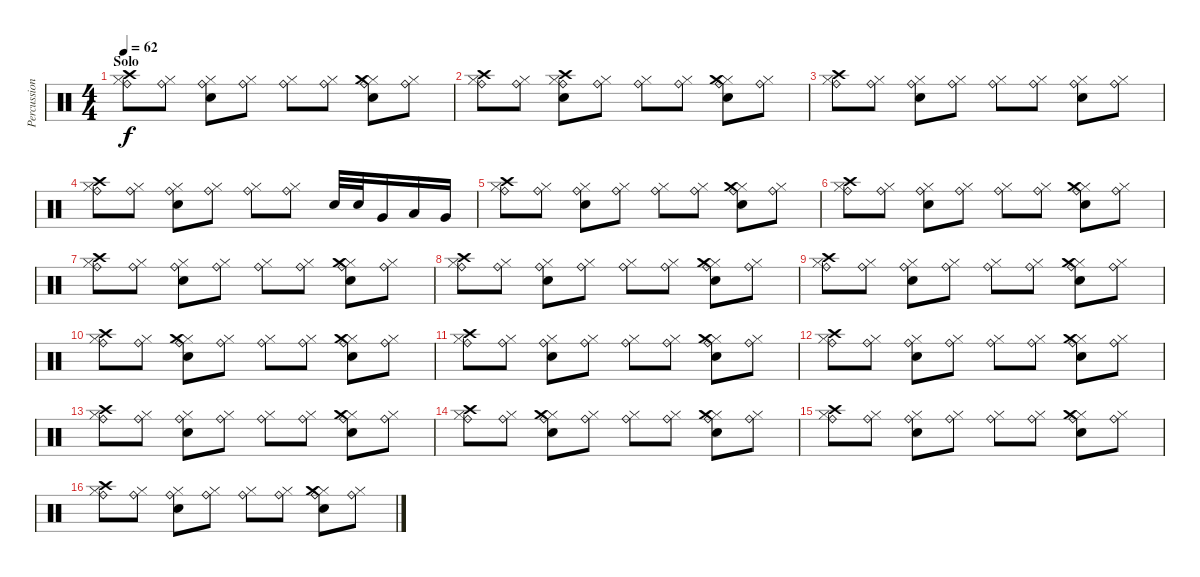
\track ("Percussion" "Percussion") {instrument percussion}
\staff {score}
\articulation defaults
\ts (4 4)
\section ("" "Solo")
\tempo 62
\clef neutral
\ks c
("Hi-Hat (closed)" "Crash high (hit)" "Ride (bell)").8{dy f} ("Hi-Hat (closed)" "Ride (bell)").8 ("Hi-Hat (closed)" "Electric Snare (hit)" "Ride (bell)").8 ("Hi-Hat (closed)" "Ride (bell)").8 ("Hi-Hat (closed)" "Ride (bell)").8 ("Hi-Hat (closed)" "Ride (bell)").8 ("Hi-Hat (closed)" "Crash medium (hit)" "Electric Snare (hit)" "Ride (bell)").8 ("Hi-Hat (closed)" "Ride (bell)").8 |
("Hi-Hat (closed)" "Crash high (hit)" "Ride (bell)").8 ("Hi-Hat (closed)" "Ride (bell)").8 ("Hi-Hat (closed)" "Crash high (hit)" "Electric Snare (hit)" "Ride (bell)").8 ("Hi-Hat (closed)" "Ride (bell)").8 ("Hi-Hat (closed)" "Ride (bell)").8 ("Hi-Hat (closed)" "Ride (bell)").8 ("Hi-Hat (closed)" "Crash medium (hit)" "Electric Snare (hit)" "Ride (bell)").8 ("Hi-Hat (closed)" "Ride (bell)").8 |
("Hi-Hat (closed)" "Crash high (hit)" "Ride (bell)").8 ("Hi-Hat (closed)" "Ride (bell)").8 ("Hi-Hat (closed)" "Electric Snare (hit)" "Ride (bell)").8 ("Hi-Hat (closed)" "Ride (bell)").8 ("Hi-Hat (closed)" "Ride (bell)").8 ("Hi-Hat (closed)" "Ride (bell)").8 ("Hi-Hat (closed)" "Electric Snare (hit)" "Ride (bell)").8 ("Hi-Hat (closed)" "Ride (bell)").8 |
("Hi-Hat (closed)" "Crash high (hit)" "Ride (bell)").8 ("Hi-Hat (closed)" "Ride (bell)").8 ("Hi-Hat (closed)" "Electric Snare (hit)" "Ride (bell)").8 ("Hi-Hat (closed)" "Ride (bell)").8 ("Hi-Hat (closed)" "Ride (bell)").8 ("Hi-Hat (closed)" "Ride (bell)").8 "Electric Snare (hit)".32 "Electric Snare (hit)".32 "Very Low Tom (hit)".16 "Low Tom (hit)".16 "Very Low Tom (hit)".16 |
("Hi-Hat (closed)" "Crash high (hit)" "Ride (bell)").8 ("Hi-Hat (closed)" "Ride (bell)").8 ("Hi-Hat (closed)" "Electric Snare (hit)" "Ride (bell)").8 ("Hi-Hat (closed)" "Ride (bell)").8 ("Hi-Hat (closed)" "Ride (bell)").8 ("Hi-Hat (closed)" "Ride (bell)").8 ("Hi-Hat (closed)" "Crash medium (hit)" "Electric Snare (hit)" "Ride (bell)").8 ("Hi-Hat (closed)" "Ride (bell)").8 |
("Hi-Hat (closed)" "Crash high (hit)" "Ride (bell)").8 ("Hi-Hat (closed)" "Ride (bell)").8 ("Hi-Hat (closed)" "Electric Snare (hit)" "Ride (bell)").8 ("Hi-Hat (closed)" "Ride (bell)").8 ("Hi-Hat (closed)" "Ride (bell)").8 ("Hi-Hat (closed)" "Ride (bell)").8 ("Hi-Hat (closed)" "Crash medium (hit)" "Electric Snare (hit)" "Ride (bell)").8 ("Hi-Hat (closed)" "Ride (bell)").8 |
("Hi-Hat (closed)" "Crash high (hit)" "Ride (bell)").8 ("Hi-Hat (closed)" "Ride (bell)").8 ("Hi-Hat (closed)" "Electric Snare (hit)" "Ride (bell)").8 ("Hi-Hat (closed)" "Ride (bell)").8 ("Hi-Hat (closed)" "Ride (bell)").8 ("Hi-Hat (closed)" "Ride (bell)").8 ("Hi-Hat (closed)" "Crash medium (hit)" "Electric Snare (hit)" "Ride (bell)").8 ("Hi-Hat (closed)" "Ride (bell)").8 |
("Hi-Hat (closed)" "Crash high (hit)" "Ride (bell)").8 ("Hi-Hat (closed)" "Ride (bell)").8 ("Hi-Hat (closed)" "Electric Snare (hit)" "Ride (bell)").8 ("Hi-Hat (closed)" "Ride (bell)").8 ("Hi-Hat (closed)" "Ride (bell)").8 ("Hi-Hat (closed)" "Ride (bell)").8 ("Hi-Hat (closed)" "Crash medium (hit)" "Electric Snare (hit)" "Ride (bell)").8 ("Hi-Hat (closed)" "Ride (bell)").8 |
("Hi-Hat (closed)" "Crash high (hit)" "Ride (bell)").8 ("Hi-Hat (closed)" "Ride (bell)").8 ("Hi-Hat (closed)" "Electric Snare (hit)" "Ride (bell)").8 ("Hi-Hat (closed)" "Ride (bell)").8 ("Hi-Hat (closed)" "Ride (bell)").8 ("Hi-Hat (closed)" "Ride (bell)").8 ("Hi-Hat (closed)" "Crash medium (hit)" "Electric Snare (hit)" "Ride (bell)").8 ("Hi-Hat (closed)" "Ride (bell)").8 |
("Hi-Hat (closed)" "Crash high (hit)" "Ride (bell)").8 ("Hi-Hat (closed)" "Ride (bell)").8 ("Hi-Hat (closed)" "Crash medium (hit)" "Electric Snare (hit)" "Ride (bell)").8 ("Hi-Hat (closed)" "Ride (bell)").8 ("Hi-Hat (closed)" "Ride (bell)").8 ("Hi-Hat (closed)" "Ride (bell)").8 ("Hi-Hat (closed)" "Crash medium (hit)" "Electric Snare (hit)" "Ride (bell)").8 ("Hi-Hat (closed)" "Ride (bell)").8 |
("Hi-Hat (closed)" "Crash high (hit)" "Ride (bell)").8 ("Hi-Hat (closed)" "Ride (bell)").8 ("Hi-Hat (closed)" "Electric Snare (hit)" "Ride (bell)").8 ("Hi-Hat (closed)" "Ride (bell)").8 ("Hi-Hat (closed)" "Ride (bell)").8 ("Hi-Hat (closed)" "Ride (bell)").8 ("Hi-Hat (closed)" "Crash medium (hit)" "Electric Snare (hit)" "Ride (bell)").8 ("Hi-Hat (closed)" "Ride (bell)").8 |
("Hi-Hat (closed)" "Crash high (hit)" "Ride (bell)").8 ("Hi-Hat (closed)" "Ride (bell)").8 ("Hi-Hat (closed)" "Electric Snare (hit)" "Ride (bell)").8 ("Hi-Hat (closed)" "Ride (bell)").8 ("Hi-Hat (closed)" "Ride (bell)").8 ("Hi-Hat (closed)" "Ride (bell)").8 ("Hi-Hat (closed)" "Crash medium (hit)" "Electric Snare (hit)" "Ride (bell)").8 ("Hi-Hat (closed)" "Ride (bell)").8 |
("Hi-Hat (closed)" "Crash high (hit)" "Ride (bell)").8 ("Hi-Hat (closed)" "Ride (bell)").8 ("Hi-Hat (closed)" "Electric Snare (hit)" "Ride (bell)").8 ("Hi-Hat (closed)" "Ride (bell)").8 ("Hi-Hat (closed)" "Ride (bell)").8 ("Hi-Hat (closed)" "Ride (bell)").8 ("Hi-Hat (closed)" "Crash medium (hit)" "Electric Snare (hit)" "Ride (bell)").8 ("Hi-Hat (closed)" "Ride (bell)").8 |
("Hi-Hat (closed)" "Crash high (hit)" "Ride (bell)").8 ("Hi-Hat (closed)" "Ride (bell)").8 ("Hi-Hat (closed)" "Crash medium (hit)" "Electric Snare (hit)" "Ride (bell)").8 ("Hi-Hat (closed)" "Ride (bell)").8 ("Hi-Hat (closed)" "Ride (bell)").8 ("Hi-Hat (closed)" "Ride (bell)").8 ("Hi-Hat (closed)" "Crash medium (hit)" "Electric Snare (hit)" "Ride (bell)").8 ("Hi-Hat (closed)" "Ride (bell)").8 |
("Hi-Hat (closed)" "Crash high (hit)" "Ride (bell)").8 ("Hi-Hat (closed)" "Ride (bell)").8 ("Hi-Hat (closed)" "Electric Snare (hit)" "Ride (bell)").8 ("Hi-Hat (closed)" "Ride (bell)").8 ("Hi-Hat (closed)" "Ride (bell)").8 ("Hi-Hat (closed)" "Ride (bell)").8 ("Hi-Hat (closed)" "Crash medium (hit)" "Electric Snare (hit)" "Ride (bell)").8 ("Hi-Hat (closed)" "Ride (bell)").8 |
("Hi-Hat (closed)" "Crash high (hit)" "Ride (bell)").8 ("Hi-Hat (closed)" "Ride (bell)").8 ("Hi-Hat (closed)" "Electric Snare (hit)" "Ride (bell)").8 ("Hi-Hat (closed)" "Ride (bell)").8 ("Hi-Hat (closed)" "Ride (bell)").8 ("Hi-Hat (closed)" "Ride (bell)").8 ("Hi-Hat (closed)" "Crash medium (hit)" "Electric Snare (hit)" "Ride (bell)").8 ("Hi-Hat (closed)" "Ride (bell)").8
